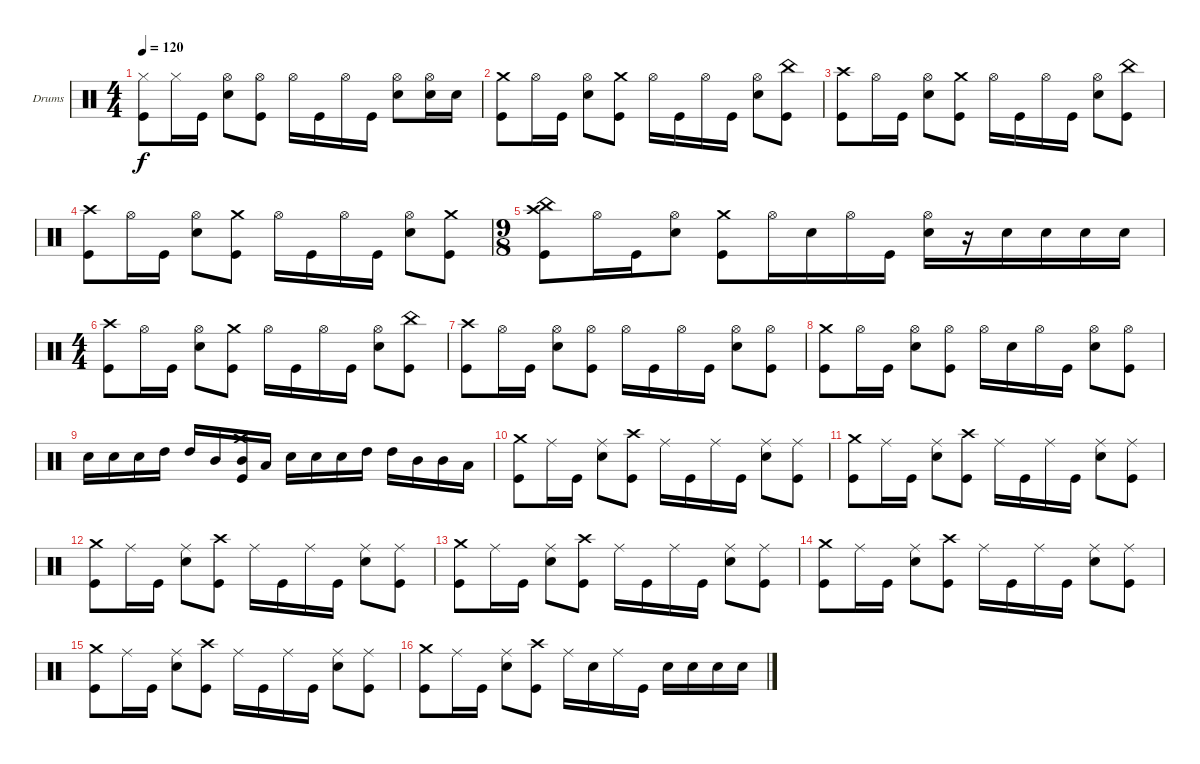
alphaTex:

\defaultSystemsLayout 4
\bracketExtendMode nobrackets
\firstSystemTrackNameOrientation horizontal
\otherSystemsTrackNameOrientation horizontal
\track ("Dave Krusen" "Drums") {instrument percussion}
\staff {score}
\articulation defaults
\ts (4 4)
\tempo 120
\clef neutral
\ks c
("Hi-Hat (closed)" "Kick (hit)").8{dy f} "Hi-Hat (closed)".16 "Kick (hit)".16 ("Hi-Hat (open)" "Snare (hit) 2").8 ("Hi-Hat (open)" "Kick (hit)").8 "Hi-Hat (open)".16 "Kick (hit)".16 "Hi-Hat (open)".16 "Kick (hit)".16 ("Hi-Hat (open)" "Snare (hit) 2").8 ("Hi-Hat (open)" "Snare (hit) 2").16 "Snare (hit) 2".16 |
("Crash medium (hit)" "Kick (hit)").8 "Hi-Hat (open)".16 "Kick (hit)".16 ("Hi-Hat (open)" "Snare (hit) 2").8 ("Crash medium (hit)" "Kick (hit)").8 "Hi-Hat (open)".16 "Kick (hit)".16 "Hi-Hat (open)".16 "Kick (hit)".16 ("Hi-Hat (open)" "Snare (hit) 2").8 ("China (hit)" "Kick (hit)").8 |
("Crash high (hit)" "Kick (hit)").8 "Hi-Hat (open)".16 "Kick (hit)".16 ("Hi-Hat (open)" "Snare (hit) 2").8 ("Crash medium (hit)" "Kick (hit)").8 "Hi-Hat (open)".16 "Kick (hit)".16 "Hi-Hat (open)".16 "Kick (hit)".16 ("Hi-Hat (open)" "Snare (hit) 2").8 ("China (hit)" "Kick (hit)").8 |
("Crash high (hit)" "Kick (hit)").8 "Hi-Hat (open)".16 "Kick (hit)".16 ("Hi-Hat (open)" "Snare (hit) 2").8 ("Crash medium (hit)" "Kick (hit)").8 "Hi-Hat (open)".16 "Kick (hit)".16 "Hi-Hat (open)".16 "Kick (hit)".16 ("Hi-Hat (open)" "Snare (hit) 2").8 ("Crash medium (hit)" "Kick (hit)").8 |
\ts (9 8)
("China (hit)" "Crash high (hit)" "Kick (hit)").8 "Hi-Hat (open)".16 "Kick (hit)".16 ("Hi-Hat (open)" "Snare (hit) 2").8 ("Crash medium (hit)" "Kick (hit)").8 "Hi-Hat (open)".16 "Snare (hit) 2".16 "Hi-Hat (open)".16 "Kick (hit)".16 ("Hi-Hat (open)" "Snare (hit) 2").16 r.16 "Snare (hit) 2".16 "Snare (hit) 2".16 "Snare (hit) 2".16 "Snare (hit) 2".16 |
\ts (4 4)
("Crash high (hit)" "Kick (hit)").8 "Hi-Hat (open)".16 "Kick (hit)".16 ("Hi-Hat (open)" "Snare (hit) 2").8 ("Crash medium (hit)" "Kick (hit)").8 "Hi-Hat (open)".16 "Kick (hit)".16 "Hi-Hat (open)".16 "Kick (hit)".16 ("Hi-Hat (open)" "Snare (hit) 2").8 ("China (hit)" "Kick (hit)").8 |
("Crash high (hit)" "Kick (hit)").8 "Hi-Hat (open)".16 "Kick (hit)".16 ("Hi-Hat (open)" "Snare (hit) 2").8 ("Hi-Hat (open)" "Kick (hit)").8 "Hi-Hat (open)".16 "Kick (hit)".16 "Hi-Hat (open)".16 "Kick (hit)".16 ("Hi-Hat (open)" "Snare (hit) 2").8 ("Hi-Hat (open)" "Kick (hit)").8 |
("Crash medium (hit)" "Kick (hit)").8 "Hi-Hat (open)".16 "Kick (hit)".16 ("Hi-Hat (open)" "Snare (hit) 2").8 ("Hi-Hat (open)" "Kick (hit)").8 "Hi-Hat (open)".16 "Snare (hit) 2".16 "Hi-Hat (open)".16 "Kick (hit)".16 ("Hi-Hat (open)" "Snare (hit) 2").8 ("Hi-Hat (open)" "Kick (hit)").8 |
"Snare (hit) 2".16 "Snare (hit) 2".16 "Snare (hit) 2".16 "High Tom (hit)".16 "High Tom (hit)".16 "Mid Tom (hit)".16 ("Crash medium (hit)" "Kick (hit)" "Mid Tom (hit)").16 "Low Tom (hit)".16 "Snare (hit) 2".16 "Snare (hit) 2".16 "Snare (hit) 2".16 "High Tom (hit)".16 "High Tom (hit)".16 "Mid Tom (hit)".16 "Mid Tom (hit)".16 "Low Tom (hit)".16 |
("Crash medium (hit)" "Kick (hit)").8 "Ride (middle)".16 "Kick (hit)".16 ("Ride (middle)" "Snare (hit) 2").8 ("Crash high (hit)" "Kick (hit)").8 "Ride (middle)".16 "Kick (hit)".16 "Ride (middle)".16 "Kick (hit)".16 ("Ride (middle)" "Snare (hit) 2").8 ("Ride (middle)" "Kick (hit)").8 |
("Crash medium (hit)" "Kick (hit)").8 "Ride (middle)".16 "Kick (hit)".16 ("Ride (middle)" "Snare (hit) 2").8 ("Crash high (hit)" "Kick (hit)").8 "Ride (middle)".16 "Kick (hit)".16 "Ride (middle)".16 "Kick (hit)".16 ("Ride (middle)" "Snare (hit) 2").8 ("Ride (middle)" "Kick (hit)").8 |
("Crash medium (hit)" "Kick (hit)").8 "Ride (middle)".16 "Kick (hit)".16 ("Ride (middle)" "Snare (hit) 2").8 ("Crash high (hit)" "Kick (hit)").8 "Ride (middle)".16 "Kick (hit)".16 "Ride (middle)".16 "Kick (hit)".16 ("Ride (middle)" "Snare (hit) 2").8 ("Ride (middle)" "Kick (hit)").8 |
("Crash medium (hit)" "Kick (hit)").8 "Ride (middle)".16 "Kick (hit)".16 ("Ride (middle)" "Snare (hit) 2").8 ("Crash high (hit)" "Kick (hit)").8 "Ride (middle)".16 "Kick (hit)".16 "Ride (middle)".16 "Kick (hit)".16 ("Ride (middle)" "Snare (hit) 2").8 ("Ride (middle)" "Kick (hit)").8 |
("Crash medium (hit)" "Kick (hit)").8 "Ride (middle)".16 "Kick (hit)".16 ("Ride (middle)" "Snare (hit) 2").8 ("Crash high (hit)" "Kick (hit)").8 "Ride (middle)".16 "Kick (hit)".16 "Ride (middle)".16 "Kick (hit)".16 ("Ride (middle)" "Snare (hit) 2").8 ("Ride (middle)" "Kick (hit)").8 |
("Crash medium (hit)" "Kick (hit)").8 "Ride (middle)".16 "Kick (hit)".16 ("Ride (middle)" "Snare (hit) 2").8 ("Crash high (hit)" "Kick (hit)").8 "Ride (middle)".16 "Kick (hit)".16 "Ride (middle)".16 "Kick (hit)".16 ("Ride (middle)" "Snare (hit) 2").8 ("Ride (middle)" "Kick (hit)").8 |
("Crash medium (hit)" "Kick (hit)").8 "Ride (middle)".16 "Kick (hit)".16 ("Ride (middle)" "Snare (hit) 2").8 ("Crash high (hit)" "Kick (hit)").8 "Ride (middle)".16 "Snare (hit) 2".16 "Ride (middle)".16 "Kick (hit)".16 "Snare (hit) 2".16 "Snare (hit) 2".16 "Snare (hit) 2".16 "Snare (hit) 2".16
